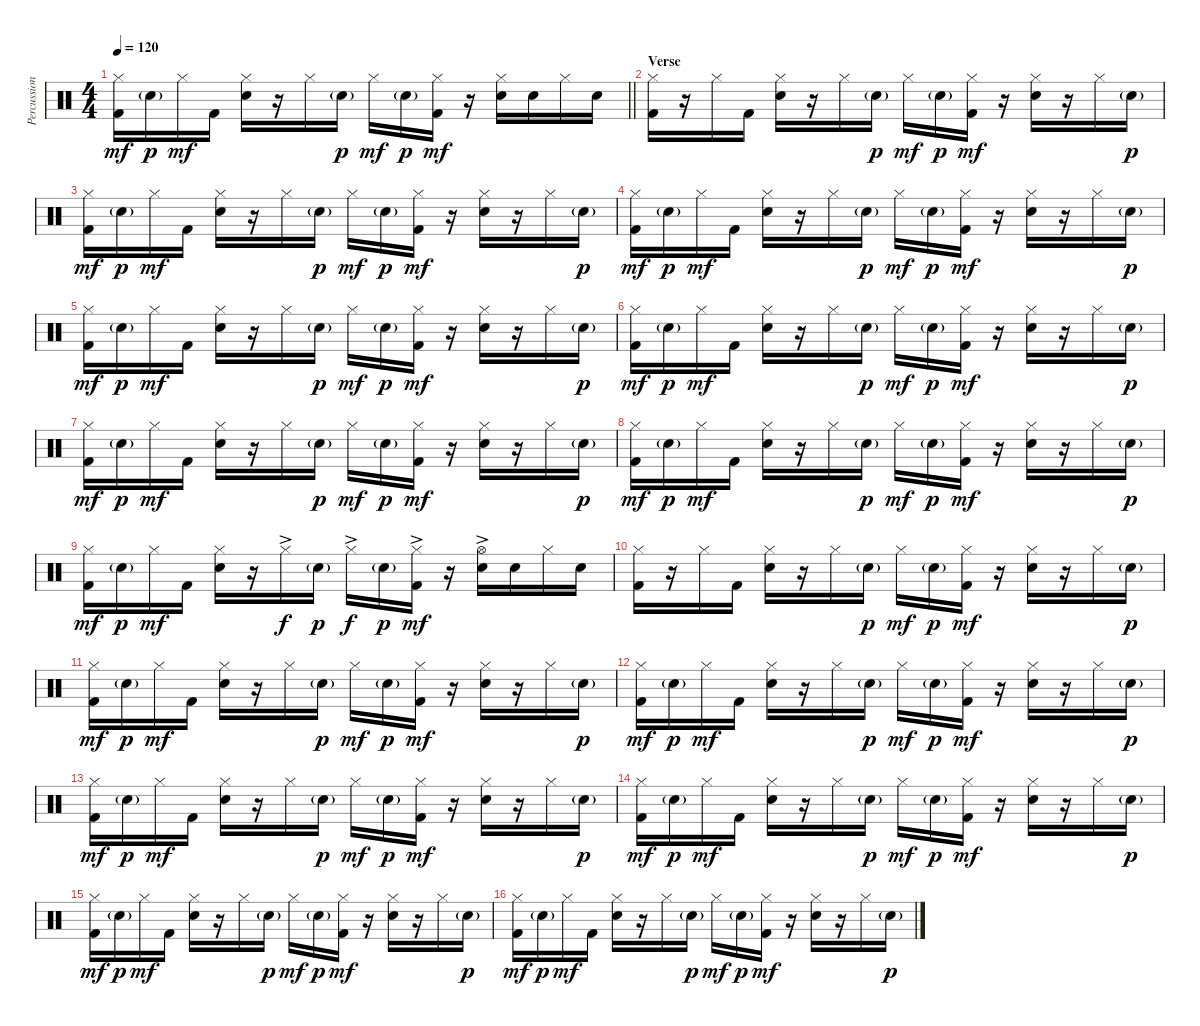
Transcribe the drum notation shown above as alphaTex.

\track ("Percussion" "Percussion") {instrument percussion}
\staff {score}
\articulation defaults
\ts (4 4)
\tempo 120
\clef neutral
\barLineRight lightlight
\ks c
("Hi-Hat (closed)" "Kick (hit) 2").16{dy mf} "Electric Snare (hit)"{g}.16{dy p} "Hi-Hat (closed)".16{dy mf} "Kick (hit) 2".16 ("Hi-Hat (closed)" "Electric Snare (hit)").16 r.16 "Hi-Hat (closed)".16 "Electric Snare (hit)"{g}.16{dy p} "Hi-Hat (closed)".16{dy mf} "Electric Snare (hit)"{g}.16{dy p} ("Hi-Hat (closed)" "Kick (hit) 2").16{dy mf} r.16 ("Hi-Hat (closed)" "Electric Snare (hit)").16 "Electric Snare (hit)".16 "Hi-Hat (closed)".16 "Electric Snare (hit)".16 |
\section ("" "Verse")
("Hi-Hat (closed)" "Kick (hit) 2").16 r.16 "Hi-Hat (closed)".16 "Kick (hit) 2".16 ("Hi-Hat (closed)" "Electric Snare (hit)").16 r.16 "Hi-Hat (closed)".16 "Electric Snare (hit)"{g}.16{dy p} "Hi-Hat (closed)".16{dy mf} "Electric Snare (hit)"{g}.16{dy p} ("Hi-Hat (closed)" "Kick (hit) 2").16{dy mf} r.16 ("Hi-Hat (closed)" "Electric Snare (hit)").16 r.16 "Hi-Hat (closed)".16 "Electric Snare (hit)"{g}.16{dy p} |
("Hi-Hat (closed)" "Kick (hit) 2").16{dy mf} "Electric Snare (hit)"{g}.16{dy p} "Hi-Hat (closed)".16{dy mf} "Kick (hit) 2".16 ("Hi-Hat (closed)" "Electric Snare (hit)").16 r.16 "Hi-Hat (closed)".16 "Electric Snare (hit)"{g}.16{dy p} "Hi-Hat (closed)".16{dy mf} "Electric Snare (hit)"{g}.16{dy p} ("Hi-Hat (closed)" "Kick (hit) 2").16{dy mf} r.16 ("Hi-Hat (closed)" "Electric Snare (hit)").16 r.16 "Hi-Hat (closed)".16 "Electric Snare (hit)"{g}.16{dy p} |
("Hi-Hat (closed)" "Kick (hit) 2").16{dy mf} "Electric Snare (hit)"{g}.16{dy p} "Hi-Hat (closed)".16{dy mf} "Kick (hit) 2".16 ("Hi-Hat (closed)" "Electric Snare (hit)").16 r.16 "Hi-Hat (closed)".16 "Electric Snare (hit)"{g}.16{dy p} "Hi-Hat (closed)".16{dy mf} "Electric Snare (hit)"{g}.16{dy p} ("Hi-Hat (closed)" "Kick (hit) 2").16{dy mf} r.16 ("Hi-Hat (closed)" "Electric Snare (hit)").16 r.16 "Hi-Hat (closed)".16 "Electric Snare (hit)"{g}.16{dy p} |
("Hi-Hat (closed)" "Kick (hit) 2").16{dy mf} "Electric Snare (hit)"{g}.16{dy p} "Hi-Hat (closed)".16{dy mf} "Kick (hit) 2".16 ("Hi-Hat (closed)" "Electric Snare (hit)").16 r.16 "Hi-Hat (closed)".16 "Electric Snare (hit)"{g}.16{dy p} "Hi-Hat (closed)".16{dy mf} "Electric Snare (hit)"{g}.16{dy p} ("Hi-Hat (closed)" "Kick (hit) 2").16{dy mf} r.16 ("Hi-Hat (closed)" "Electric Snare (hit)").16 r.16 "Hi-Hat (closed)".16 "Electric Snare (hit)"{g}.16{dy p} |
("Hi-Hat (closed)" "Kick (hit) 2").16{dy mf} "Electric Snare (hit)"{g}.16{dy p} "Hi-Hat (closed)".16{dy mf} "Kick (hit) 2".16 ("Hi-Hat (closed)" "Electric Snare (hit)").16 r.16 "Hi-Hat (closed)".16 "Electric Snare (hit)"{g}.16{dy p} "Hi-Hat (closed)".16{dy mf} "Electric Snare (hit)"{g}.16{dy p} ("Hi-Hat (closed)" "Kick (hit) 2").16{dy mf} r.16 ("Hi-Hat (closed)" "Electric Snare (hit)").16 r.16 "Hi-Hat (closed)".16 "Electric Snare (hit)"{g}.16{dy p} |
("Hi-Hat (closed)" "Kick (hit) 2").16{dy mf} "Electric Snare (hit)"{g}.16{dy p} "Hi-Hat (closed)".16{dy mf} "Kick (hit) 2".16 ("Hi-Hat (closed)" "Electric Snare (hit)").16 r.16 "Hi-Hat (closed)".16 "Electric Snare (hit)"{g}.16{dy p} "Hi-Hat (closed)".16{dy mf} "Electric Snare (hit)"{g}.16{dy p} ("Hi-Hat (closed)" "Kick (hit) 2").16{dy mf} r.16 ("Hi-Hat (closed)" "Electric Snare (hit)").16 r.16 "Hi-Hat (closed)".16 "Electric Snare (hit)"{g}.16{dy p} |
("Hi-Hat (closed)" "Kick (hit) 2").16{dy mf} "Electric Snare (hit)"{g}.16{dy p} "Hi-Hat (closed)".16{dy mf} "Kick (hit) 2".16 ("Hi-Hat (closed)" "Electric Snare (hit)").16 r.16 "Hi-Hat (closed)".16 "Electric Snare (hit)"{g}.16{dy p} "Hi-Hat (closed)".16{dy mf} "Electric Snare (hit)"{g}.16{dy p} ("Hi-Hat (closed)" "Kick (hit) 2").16{dy mf} r.16 ("Hi-Hat (closed)" "Electric Snare (hit)").16 r.16 "Hi-Hat (closed)".16 "Electric Snare (hit)"{g}.16{dy p} |
("Hi-Hat (closed)" "Kick (hit) 2").16{dy mf} "Electric Snare (hit)"{g}.16{dy p} "Hi-Hat (closed)".16{dy mf} "Kick (hit) 2".16 ("Hi-Hat (closed)" "Electric Snare (hit)").16 r.16 "Hi-Hat (closed)"{ac}.16{dy f} "Electric Snare (hit)"{g}.16{dy p} "Hi-Hat (closed)"{ac}.16{dy f} "Electric Snare (hit)"{g}.16{dy p} ("Hi-Hat (closed)"{ac} "Kick (hit) 2").16{dy mf} r.16 ("Hi-Hat (open)"{ac} "Electric Snare (hit)").16 "Electric Snare (hit)".16 "Hi-Hat (closed)".16 "Electric Snare (hit)".16 |
("Hi-Hat (closed)" "Kick (hit) 2").16 r.16 "Hi-Hat (closed)".16 "Kick (hit) 2".16 ("Hi-Hat (closed)" "Electric Snare (hit)").16 r.16 "Hi-Hat (closed)".16 "Electric Snare (hit)"{g}.16{dy p} "Hi-Hat (closed)".16{dy mf} "Electric Snare (hit)"{g}.16{dy p} ("Hi-Hat (closed)" "Kick (hit) 2").16{dy mf} r.16 ("Hi-Hat (closed)" "Electric Snare (hit)").16 r.16 "Hi-Hat (closed)".16 "Electric Snare (hit)"{g}.16{dy p} |
("Hi-Hat (closed)" "Kick (hit) 2").16{dy mf} "Electric Snare (hit)"{g}.16{dy p} "Hi-Hat (closed)".16{dy mf} "Kick (hit) 2".16 ("Hi-Hat (closed)" "Electric Snare (hit)").16 r.16 "Hi-Hat (closed)".16 "Electric Snare (hit)"{g}.16{dy p} "Hi-Hat (closed)".16{dy mf} "Electric Snare (hit)"{g}.16{dy p} ("Hi-Hat (closed)" "Kick (hit) 2").16{dy mf} r.16 ("Hi-Hat (closed)" "Electric Snare (hit)").16 r.16 "Hi-Hat (closed)".16 "Electric Snare (hit)"{g}.16{dy p} |
("Hi-Hat (closed)" "Kick (hit) 2").16{dy mf} "Electric Snare (hit)"{g}.16{dy p} "Hi-Hat (closed)".16{dy mf} "Kick (hit) 2".16 ("Hi-Hat (closed)" "Electric Snare (hit)").16 r.16 "Hi-Hat (closed)".16 "Electric Snare (hit)"{g}.16{dy p} "Hi-Hat (closed)".16{dy mf} "Electric Snare (hit)"{g}.16{dy p} ("Hi-Hat (closed)" "Kick (hit) 2").16{dy mf} r.16 ("Hi-Hat (closed)" "Electric Snare (hit)").16 r.16 "Hi-Hat (closed)".16 "Electric Snare (hit)"{g}.16{dy p} |
("Hi-Hat (closed)" "Kick (hit) 2").16{dy mf} "Electric Snare (hit)"{g}.16{dy p} "Hi-Hat (closed)".16{dy mf} "Kick (hit) 2".16 ("Hi-Hat (closed)" "Electric Snare (hit)").16 r.16 "Hi-Hat (closed)".16 "Electric Snare (hit)"{g}.16{dy p} "Hi-Hat (closed)".16{dy mf} "Electric Snare (hit)"{g}.16{dy p} ("Hi-Hat (closed)" "Kick (hit) 2").16{dy mf} r.16 ("Hi-Hat (closed)" "Electric Snare (hit)").16 r.16 "Hi-Hat (closed)".16 "Electric Snare (hit)"{g}.16{dy p} |
("Hi-Hat (closed)" "Kick (hit) 2").16{dy mf} "Electric Snare (hit)"{g}.16{dy p} "Hi-Hat (closed)".16{dy mf} "Kick (hit) 2".16 ("Hi-Hat (closed)" "Electric Snare (hit)").16 r.16 "Hi-Hat (closed)".16 "Electric Snare (hit)"{g}.16{dy p} "Hi-Hat (closed)".16{dy mf} "Electric Snare (hit)"{g}.16{dy p} ("Hi-Hat (closed)" "Kick (hit) 2").16{dy mf} r.16 ("Hi-Hat (closed)" "Electric Snare (hit)").16 r.16 "Hi-Hat (closed)".16 "Electric Snare (hit)"{g}.16{dy p} |
("Hi-Hat (closed)" "Kick (hit) 2").16{dy mf} "Electric Snare (hit)"{g}.16{dy p} "Hi-Hat (closed)".16{dy mf} "Kick (hit) 2".16 ("Hi-Hat (closed)" "Electric Snare (hit)").16 r.16 "Hi-Hat (closed)".16 "Electric Snare (hit)"{g}.16{dy p} "Hi-Hat (closed)".16{dy mf} "Electric Snare (hit)"{g}.16{dy p} ("Hi-Hat (closed)" "Kick (hit) 2").16{dy mf} r.16 ("Hi-Hat (closed)" "Electric Snare (hit)").16 r.16 "Hi-Hat (closed)".16 "Electric Snare (hit)"{g}.16{dy p} |
("Hi-Hat (closed)" "Kick (hit) 2").16{dy mf} "Electric Snare (hit)"{g}.16{dy p} "Hi-Hat (closed)".16{dy mf} "Kick (hit) 2".16 ("Hi-Hat (closed)" "Electric Snare (hit)").16 r.16 "Hi-Hat (closed)".16 "Electric Snare (hit)"{g}.16{dy p} "Hi-Hat (closed)".16{dy mf} "Electric Snare (hit)"{g}.16{dy p} ("Hi-Hat (closed)" "Kick (hit) 2").16{dy mf} r.16 ("Hi-Hat (closed)" "Electric Snare (hit)").16 r.16 "Hi-Hat (closed)".16 "Electric Snare (hit)"{g}.16{dy p}
